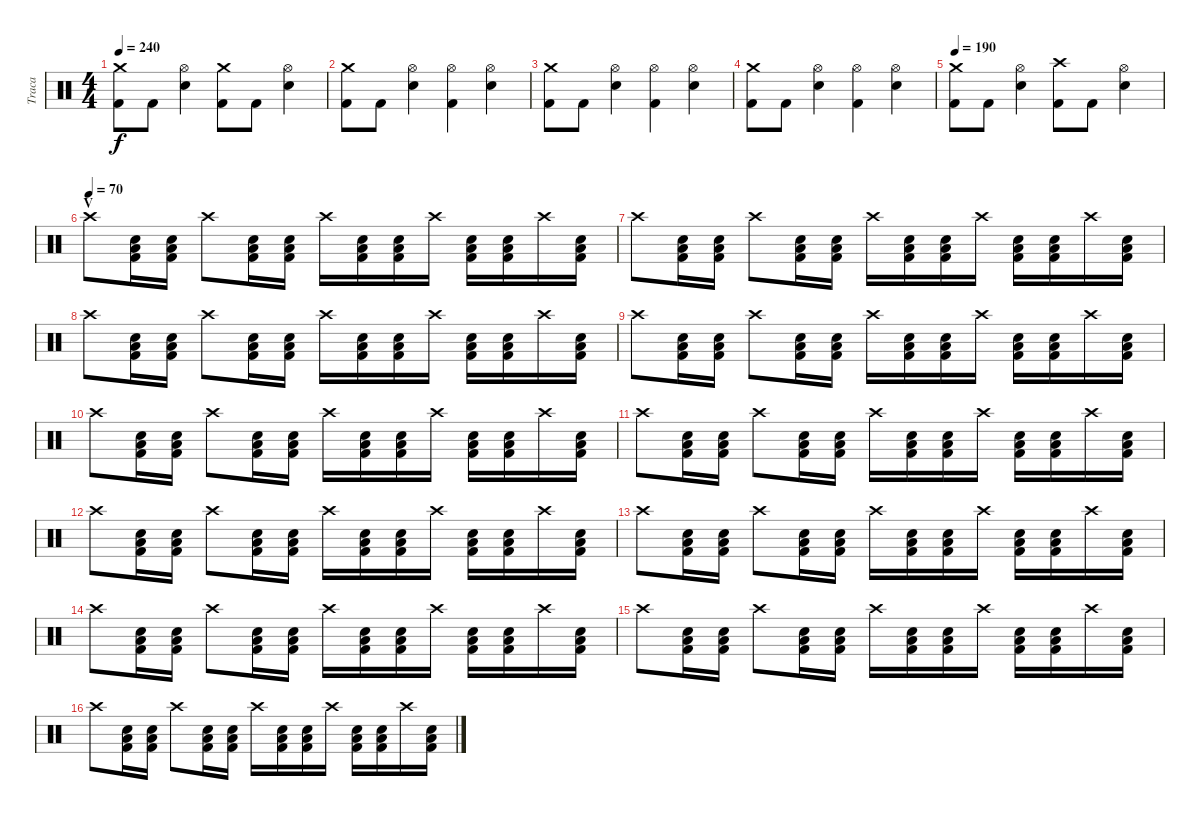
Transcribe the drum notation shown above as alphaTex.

\track ("Traca" "Traca") {instrument percussion}
\staff {score}
\articulation defaults
\ts (4 4)
\tempo 240
\clef neutral
\ks c
("Crash medium (hit)" "Kick (hit) 2").8{dy f} "Kick (hit) 2".8 ("Hi-Hat (open)" "Snare (hit) 2").4 ("Crash medium (hit)" "Kick (hit) 2").8 "Kick (hit) 2".8 ("Hi-Hat (open)" "Snare (hit) 2").4 |
("Crash medium (hit)" "Kick (hit) 2").8 "Kick (hit) 2".8 ("Hi-Hat (open)" "Snare (hit) 2").4 ("Hi-Hat (open)" "Kick (hit) 2").4 ("Hi-Hat (open)" "Snare (hit) 2").4 |
("Crash medium (hit)" "Kick (hit) 2").8 "Kick (hit) 2".8 ("Hi-Hat (open)" "Snare (hit) 2").4 ("Hi-Hat (open)" "Kick (hit) 2").4 ("Hi-Hat (open)" "Snare (hit) 2").4 |
("Crash medium (hit)" "Kick (hit) 2").8 "Kick (hit) 2".8 ("Hi-Hat (open)" "Snare (hit) 2").4 ("Hi-Hat (open)" "Kick (hit) 2").4 ("Hi-Hat (open)" "Snare (hit) 2").4 |
\tempo 190
("Crash medium (hit)" "Kick (hit) 2").8 "Kick (hit) 2".8 ("Hi-Hat (open)" "Snare (hit) 2").4 ("Crash high (hit)" "Kick (hit) 2").8 "Kick (hit) 2".8 ("Hi-Hat (open)" "Snare (hit) 2").4 |
\section ("" "V")
\tempo (70)
"Crash high (hit)".8 ("Snare (hit) 2" "Low Floor Tom (hit)" "Kick (hit) 2").16 ("Snare (hit) 2" "Low Floor Tom (hit)" "Kick (hit) 2").16 "Crash high (hit)".8 ("Snare (hit) 2" "Low Floor Tom (hit)" "Kick (hit) 2").16 ("Snare (hit) 2" "Low Floor Tom (hit)" "Kick (hit) 2").16 "Crash high (hit)".16 ("Snare (hit) 2" "Low Floor Tom (hit)" "Kick (hit) 2").16 ("Snare (hit) 2" "Low Floor Tom (hit)" "Kick (hit) 2").16 "Crash high (hit)".16 ("Snare (hit) 2" "Low Floor Tom (hit)" "Kick (hit) 2").16 ("Snare (hit) 2" "Low Floor Tom (hit)" "Kick (hit) 2").16 "Crash high (hit)".16 ("Snare (hit) 2" "Low Floor Tom (hit)" "Kick (hit) 2").16 |
"Crash high (hit)".8 ("Snare (hit) 2" "Low Floor Tom (hit)" "Kick (hit) 2").16 ("Snare (hit) 2" "Low Floor Tom (hit)" "Kick (hit) 2").16 "Crash high (hit)".8 ("Snare (hit) 2" "Low Floor Tom (hit)" "Kick (hit) 2").16 ("Snare (hit) 2" "Low Floor Tom (hit)" "Kick (hit) 2").16 "Crash high (hit)".16 ("Snare (hit) 2" "Low Floor Tom (hit)" "Kick (hit) 2").16 ("Snare (hit) 2" "Low Floor Tom (hit)" "Kick (hit) 2").16 "Crash high (hit)".16 ("Snare (hit) 2" "Low Floor Tom (hit)" "Kick (hit) 2").16 ("Snare (hit) 2" "Low Floor Tom (hit)" "Kick (hit) 2").16 "Crash high (hit)".16 ("Snare (hit) 2" "Low Floor Tom (hit)" "Kick (hit) 2").16 |
"Crash high (hit)".8 ("Snare (hit) 2" "Low Floor Tom (hit)" "Kick (hit) 2").16 ("Snare (hit) 2" "Low Floor Tom (hit)" "Kick (hit) 2").16 "Crash high (hit)".8 ("Snare (hit) 2" "Low Floor Tom (hit)" "Kick (hit) 2").16 ("Snare (hit) 2" "Low Floor Tom (hit)" "Kick (hit) 2").16 "Crash high (hit)".16 ("Snare (hit) 2" "Low Floor Tom (hit)" "Kick (hit) 2").16 ("Snare (hit) 2" "Low Floor Tom (hit)" "Kick (hit) 2").16 "Crash high (hit)".16 ("Snare (hit) 2" "Low Floor Tom (hit)" "Kick (hit) 2").16 ("Snare (hit) 2" "Low Floor Tom (hit)" "Kick (hit) 2").16 "Crash high (hit)".16 ("Snare (hit) 2" "Low Floor Tom (hit)" "Kick (hit) 2").16 |
"Crash high (hit)".8 ("Snare (hit) 2" "Low Floor Tom (hit)" "Kick (hit) 2").16 ("Snare (hit) 2" "Low Floor Tom (hit)" "Kick (hit) 2").16 "Crash high (hit)".8 ("Snare (hit) 2" "Low Floor Tom (hit)" "Kick (hit) 2").16 ("Snare (hit) 2" "Low Floor Tom (hit)" "Kick (hit) 2").16 "Crash high (hit)".16 ("Snare (hit) 2" "Low Floor Tom (hit)" "Kick (hit) 2").16 ("Snare (hit) 2" "Low Floor Tom (hit)" "Kick (hit) 2").16 "Crash high (hit)".16 ("Snare (hit) 2" "Low Floor Tom (hit)" "Kick (hit) 2").16 ("Snare (hit) 2" "Low Floor Tom (hit)" "Kick (hit) 2").16 "Crash high (hit)".16 ("Snare (hit) 2" "Low Floor Tom (hit)" "Kick (hit) 2").16 |
"Crash high (hit)".8 ("Snare (hit) 2" "Low Floor Tom (hit)" "Kick (hit) 2").16 ("Snare (hit) 2" "Low Floor Tom (hit)" "Kick (hit) 2").16 "Crash high (hit)".8 ("Snare (hit) 2" "Low Floor Tom (hit)" "Kick (hit) 2").16 ("Snare (hit) 2" "Low Floor Tom (hit)" "Kick (hit) 2").16 "Crash high (hit)".16 ("Snare (hit) 2" "Low Floor Tom (hit)" "Kick (hit) 2").16 ("Snare (hit) 2" "Low Floor Tom (hit)" "Kick (hit) 2").16 "Crash high (hit)".16 ("Snare (hit) 2" "Low Floor Tom (hit)" "Kick (hit) 2").16 ("Snare (hit) 2" "Low Floor Tom (hit)" "Kick (hit) 2").16 "Crash high (hit)".16 ("Snare (hit) 2" "Low Floor Tom (hit)" "Kick (hit) 2").16 |
"Crash high (hit)".8 ("Snare (hit) 2" "Low Floor Tom (hit)" "Kick (hit) 2").16 ("Snare (hit) 2" "Low Floor Tom (hit)" "Kick (hit) 2").16 "Crash high (hit)".8 ("Snare (hit) 2" "Low Floor Tom (hit)" "Kick (hit) 2").16 ("Snare (hit) 2" "Low Floor Tom (hit)" "Kick (hit) 2").16 "Crash high (hit)".16 ("Snare (hit) 2" "Low Floor Tom (hit)" "Kick (hit) 2").16 ("Snare (hit) 2" "Low Floor Tom (hit)" "Kick (hit) 2").16 "Crash high (hit)".16 ("Snare (hit) 2" "Low Floor Tom (hit)" "Kick (hit) 2").16 ("Snare (hit) 2" "Low Floor Tom (hit)" "Kick (hit) 2").16 "Crash high (hit)".16 ("Snare (hit) 2" "Low Floor Tom (hit)" "Kick (hit) 2").16 |
"Crash high (hit)".8 ("Snare (hit) 2" "Low Floor Tom (hit)" "Kick (hit) 2").16 ("Snare (hit) 2" "Low Floor Tom (hit)" "Kick (hit) 2").16 "Crash high (hit)".8 ("Snare (hit) 2" "Low Floor Tom (hit)" "Kick (hit) 2").16 ("Snare (hit) 2" "Low Floor Tom (hit)" "Kick (hit) 2").16 "Crash high (hit)".16 ("Snare (hit) 2" "Low Floor Tom (hit)" "Kick (hit) 2").16 ("Snare (hit) 2" "Low Floor Tom (hit)" "Kick (hit) 2").16 "Crash high (hit)".16 ("Snare (hit) 2" "Low Floor Tom (hit)" "Kick (hit) 2").16 ("Snare (hit) 2" "Low Floor Tom (hit)" "Kick (hit) 2").16 "Crash high (hit)".16 ("Snare (hit) 2" "Low Floor Tom (hit)" "Kick (hit) 2").16 |
"Crash high (hit)".8 ("Snare (hit) 2" "Low Floor Tom (hit)" "Kick (hit) 2").16 ("Snare (hit) 2" "Low Floor Tom (hit)" "Kick (hit) 2").16 "Crash high (hit)".8 ("Snare (hit) 2" "Low Floor Tom (hit)" "Kick (hit) 2").16 ("Snare (hit) 2" "Low Floor Tom (hit)" "Kick (hit) 2").16 "Crash high (hit)".16 ("Snare (hit) 2" "Low Floor Tom (hit)" "Kick (hit) 2").16 ("Snare (hit) 2" "Low Floor Tom (hit)" "Kick (hit) 2").16 "Crash high (hit)".16 ("Snare (hit) 2" "Low Floor Tom (hit)" "Kick (hit) 2").16 ("Snare (hit) 2" "Low Floor Tom (hit)" "Kick (hit) 2").16 "Crash high (hit)".16 ("Snare (hit) 2" "Low Floor Tom (hit)" "Kick (hit) 2").16 |
"Crash high (hit)".8 ("Snare (hit) 2" "Low Floor Tom (hit)" "Kick (hit) 2").16 ("Snare (hit) 2" "Low Floor Tom (hit)" "Kick (hit) 2").16 "Crash high (hit)".8 ("Snare (hit) 2" "Low Floor Tom (hit)" "Kick (hit) 2").16 ("Snare (hit) 2" "Low Floor Tom (hit)" "Kick (hit) 2").16 "Crash high (hit)".16 ("Snare (hit) 2" "Low Floor Tom (hit)" "Kick (hit) 2").16 ("Snare (hit) 2" "Low Floor Tom (hit)" "Kick (hit) 2").16 "Crash high (hit)".16 ("Snare (hit) 2" "Low Floor Tom (hit)" "Kick (hit) 2").16 ("Snare (hit) 2" "Low Floor Tom (hit)" "Kick (hit) 2").16 "Crash high (hit)".16 ("Snare (hit) 2" "Low Floor Tom (hit)" "Kick (hit) 2").16 |
"Crash high (hit)".8 ("Snare (hit) 2" "Low Floor Tom (hit)" "Kick (hit) 2").16 ("Snare (hit) 2" "Low Floor Tom (hit)" "Kick (hit) 2").16 "Crash high (hit)".8 ("Snare (hit) 2" "Low Floor Tom (hit)" "Kick (hit) 2").16 ("Snare (hit) 2" "Low Floor Tom (hit)" "Kick (hit) 2").16 "Crash high (hit)".16 ("Snare (hit) 2" "Low Floor Tom (hit)" "Kick (hit) 2").16 ("Snare (hit) 2" "Low Floor Tom (hit)" "Kick (hit) 2").16 "Crash high (hit)".16 ("Snare (hit) 2" "Low Floor Tom (hit)" "Kick (hit) 2").16 ("Snare (hit) 2" "Low Floor Tom (hit)" "Kick (hit) 2").16 "Crash high (hit)".16 ("Snare (hit) 2" "Low Floor Tom (hit)" "Kick (hit) 2").16 |
"Crash high (hit)".8 ("Snare (hit) 2" "Low Floor Tom (hit)" "Kick (hit) 2").16 ("Snare (hit) 2" "Low Floor Tom (hit)" "Kick (hit) 2").16 "Crash high (hit)".8 ("Snare (hit) 2" "Low Floor Tom (hit)" "Kick (hit) 2").16 ("Snare (hit) 2" "Low Floor Tom (hit)" "Kick (hit) 2").16 "Crash high (hit)".16 ("Snare (hit) 2" "Low Floor Tom (hit)" "Kick (hit) 2").16 ("Snare (hit) 2" "Low Floor Tom (hit)" "Kick (hit) 2").16 "Crash high (hit)".16 ("Snare (hit) 2" "Low Floor Tom (hit)" "Kick (hit) 2").16 ("Snare (hit) 2" "Low Floor Tom (hit)" "Kick (hit) 2").16 "Crash high (hit)".16 ("Snare (hit) 2" "Low Floor Tom (hit)" "Kick (hit) 2").16
